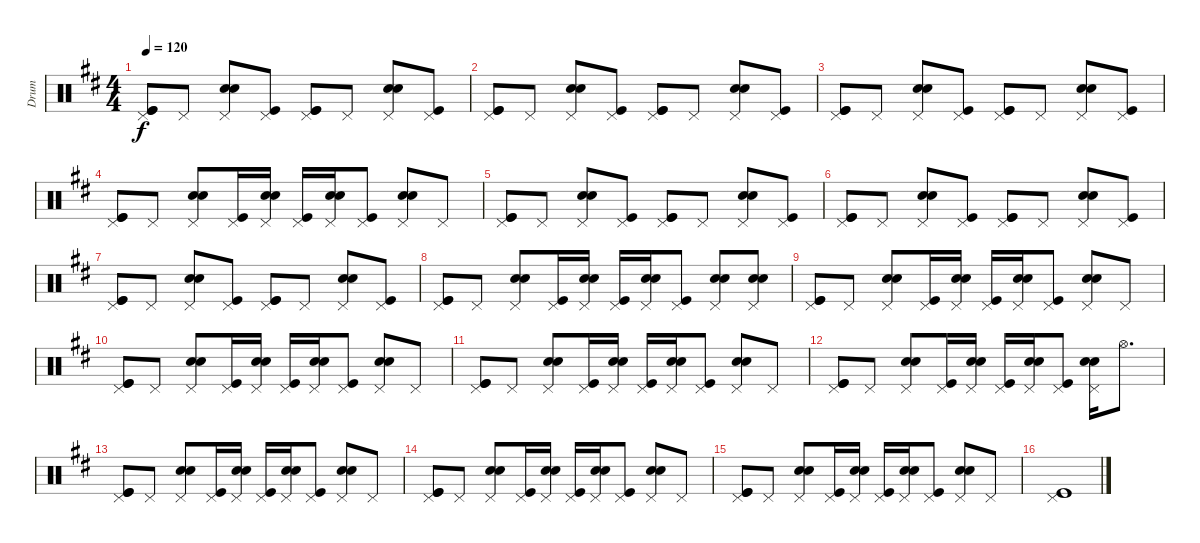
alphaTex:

\track ("Drum" "Drum") {instrument percussion}
\staff {score}
\articulation defaults
\ts (4 4)
\tempo 120
\clef neutral
\ks d
("Pedal Hi-Hat (hit)" "Kick (hit)" "Kick (hit)").8{dy f} "Pedal Hi-Hat (hit)".8 ("Pedal Hi-Hat (hit)" "Electric Snare (hit)" "Electric Snare (hit)").8 ("Pedal Hi-Hat (hit)" "Kick (hit)").8 ("Pedal Hi-Hat (hit)" "Kick (hit)" "Kick (hit)").8 "Pedal Hi-Hat (hit)".8 ("Pedal Hi-Hat (hit)" "Electric Snare (hit)" "Electric Snare (hit)").8 ("Pedal Hi-Hat (hit)" "Kick (hit)").8 |
("Pedal Hi-Hat (hit)" "Kick (hit)" "Kick (hit)").8 "Pedal Hi-Hat (hit)".8 ("Pedal Hi-Hat (hit)" "Electric Snare (hit)" "Electric Snare (hit)").8 ("Pedal Hi-Hat (hit)" "Kick (hit)").8 ("Pedal Hi-Hat (hit)" "Kick (hit)" "Kick (hit)").8 "Pedal Hi-Hat (hit)".8 ("Pedal Hi-Hat (hit)" "Electric Snare (hit)" "Electric Snare (hit)").8 ("Pedal Hi-Hat (hit)" "Kick (hit)").8 |
("Pedal Hi-Hat (hit)" "Kick (hit)" "Kick (hit)").8 "Pedal Hi-Hat (hit)".8 ("Pedal Hi-Hat (hit)" "Electric Snare (hit)" "Electric Snare (hit)").8 ("Pedal Hi-Hat (hit)" "Kick (hit)").8 ("Pedal Hi-Hat (hit)" "Kick (hit)" "Kick (hit)").8 "Pedal Hi-Hat (hit)".8 ("Pedal Hi-Hat (hit)" "Electric Snare (hit)" "Electric Snare (hit)").8 ("Pedal Hi-Hat (hit)" "Kick (hit)").8 |
("Pedal Hi-Hat (hit)" "Kick (hit)" "Kick (hit)").8 "Pedal Hi-Hat (hit)".8 ("Pedal Hi-Hat (hit)" "Electric Snare (hit)" "Electric Snare (hit)").8 ("Pedal Hi-Hat (hit)" "Kick (hit)").16 ("Pedal Hi-Hat (hit)" "Electric Snare (hit)" "Electric Snare (hit)").16 ("Pedal Hi-Hat (hit)" "Kick (hit)").16 ("Pedal Hi-Hat (hit)" "Electric Snare (hit)" "Electric Snare (hit)").16 ("Pedal Hi-Hat (hit)" "Kick (hit)").8 ("Pedal Hi-Hat (hit)" "Electric Snare (hit)" "Electric Snare (hit)").8 "Pedal Hi-Hat (hit)".8 |
("Pedal Hi-Hat (hit)" "Kick (hit)" "Kick (hit)").8 "Pedal Hi-Hat (hit)".8 ("Pedal Hi-Hat (hit)" "Electric Snare (hit)" "Electric Snare (hit)").8 ("Pedal Hi-Hat (hit)" "Kick (hit)").8 ("Pedal Hi-Hat (hit)" "Kick (hit)" "Kick (hit)").8 "Pedal Hi-Hat (hit)".8 ("Pedal Hi-Hat (hit)" "Electric Snare (hit)" "Electric Snare (hit)").8 ("Pedal Hi-Hat (hit)" "Kick (hit)").8 |
("Pedal Hi-Hat (hit)" "Kick (hit)" "Kick (hit)").8 "Pedal Hi-Hat (hit)".8 ("Pedal Hi-Hat (hit)" "Electric Snare (hit)" "Electric Snare (hit)").8 ("Pedal Hi-Hat (hit)" "Kick (hit)").8 ("Pedal Hi-Hat (hit)" "Kick (hit)" "Kick (hit)").8 "Pedal Hi-Hat (hit)".8 ("Pedal Hi-Hat (hit)" "Electric Snare (hit)" "Electric Snare (hit)").8 ("Pedal Hi-Hat (hit)" "Kick (hit)").8 |
("Pedal Hi-Hat (hit)" "Kick (hit)" "Kick (hit)").8 "Pedal Hi-Hat (hit)".8 ("Pedal Hi-Hat (hit)" "Electric Snare (hit)" "Electric Snare (hit)").8 ("Pedal Hi-Hat (hit)" "Kick (hit)").8 ("Pedal Hi-Hat (hit)" "Kick (hit)" "Kick (hit)").8 "Pedal Hi-Hat (hit)".8 ("Pedal Hi-Hat (hit)" "Electric Snare (hit)" "Electric Snare (hit)").8 ("Pedal Hi-Hat (hit)" "Kick (hit)").8 |
("Pedal Hi-Hat (hit)" "Kick (hit)" "Kick (hit)").8 "Pedal Hi-Hat (hit)".8 ("Pedal Hi-Hat (hit)" "Electric Snare (hit)" "Electric Snare (hit)").8 ("Pedal Hi-Hat (hit)" "Kick (hit)").16 ("Pedal Hi-Hat (hit)" "Electric Snare (hit)" "Electric Snare (hit)").16 ("Pedal Hi-Hat (hit)" "Kick (hit)").16 ("Pedal Hi-Hat (hit)" "Electric Snare (hit)" "Electric Snare (hit)").16 ("Pedal Hi-Hat (hit)" "Kick (hit)").8 ("Pedal Hi-Hat (hit)" "Electric Snare (hit)" "Electric Snare (hit)").8 ("Pedal Hi-Hat (hit)" "Electric Snare (hit)" "Electric Snare (hit)").8 |
("Pedal Hi-Hat (hit)" "Kick (hit)" "Kick (hit)").8 "Pedal Hi-Hat (hit)".8 ("Pedal Hi-Hat (hit)" "Electric Snare (hit)" "Electric Snare (hit)").8 ("Pedal Hi-Hat (hit)" "Kick (hit)").16 ("Pedal Hi-Hat (hit)" "Electric Snare (hit)" "Electric Snare (hit)").16 ("Pedal Hi-Hat (hit)" "Kick (hit)").16 ("Pedal Hi-Hat (hit)" "Electric Snare (hit)" "Electric Snare (hit)").16 ("Pedal Hi-Hat (hit)" "Kick (hit)").8 ("Pedal Hi-Hat (hit)" "Electric Snare (hit)" "Electric Snare (hit)").8 "Pedal Hi-Hat (hit)".8 |
("Pedal Hi-Hat (hit)" "Kick (hit)" "Kick (hit)").8 "Pedal Hi-Hat (hit)".8 ("Pedal Hi-Hat (hit)" "Electric Snare (hit)" "Electric Snare (hit)").8 ("Pedal Hi-Hat (hit)" "Kick (hit)").16 ("Pedal Hi-Hat (hit)" "Electric Snare (hit)" "Electric Snare (hit)").16 ("Pedal Hi-Hat (hit)" "Kick (hit)").16 ("Pedal Hi-Hat (hit)" "Electric Snare (hit)" "Electric Snare (hit)").16 ("Pedal Hi-Hat (hit)" "Kick (hit)").8 ("Pedal Hi-Hat (hit)" "Electric Snare (hit)" "Electric Snare (hit)").8 "Pedal Hi-Hat (hit)".8 |
("Pedal Hi-Hat (hit)" "Kick (hit)" "Kick (hit)").8 "Pedal Hi-Hat (hit)".8 ("Pedal Hi-Hat (hit)" "Electric Snare (hit)" "Electric Snare (hit)").8 ("Pedal Hi-Hat (hit)" "Kick (hit)").16 ("Pedal Hi-Hat (hit)" "Electric Snare (hit)" "Electric Snare (hit)").16 ("Pedal Hi-Hat (hit)" "Kick (hit)").16 ("Pedal Hi-Hat (hit)" "Electric Snare (hit)" "Electric Snare (hit)").16 ("Pedal Hi-Hat (hit)" "Kick (hit)").8 ("Pedal Hi-Hat (hit)" "Electric Snare (hit)" "Electric Snare (hit)").8 "Pedal Hi-Hat (hit)".8 |
("Pedal Hi-Hat (hit)" "Kick (hit)" "Kick (hit)").8 "Pedal Hi-Hat (hit)".8 ("Pedal Hi-Hat (hit)" "Electric Snare (hit)" "Electric Snare (hit)").8 ("Pedal Hi-Hat (hit)" "Kick (hit)").16 ("Pedal Hi-Hat (hit)" "Electric Snare (hit)" "Electric Snare (hit)").16 ("Pedal Hi-Hat (hit)" "Kick (hit)").16 ("Pedal Hi-Hat (hit)" "Electric Snare (hit)" "Electric Snare (hit)").16 ("Pedal Hi-Hat (hit)" "Kick (hit)").8 ("Pedal Hi-Hat (hit)" "Electric Snare (hit)" "Electric Snare (hit)").16 "Hi-Hat (open)".8{d} |
("Pedal Hi-Hat (hit)" "Kick (hit)" "Kick (hit)").8 "Pedal Hi-Hat (hit)".8 ("Pedal Hi-Hat (hit)" "Electric Snare (hit)" "Electric Snare (hit)").8 ("Pedal Hi-Hat (hit)" "Kick (hit)").16 ("Pedal Hi-Hat (hit)" "Electric Snare (hit)" "Electric Snare (hit)").16 ("Pedal Hi-Hat (hit)" "Kick (hit)").16 ("Pedal Hi-Hat (hit)" "Electric Snare (hit)" "Electric Snare (hit)").16 ("Pedal Hi-Hat (hit)" "Kick (hit)").8 ("Pedal Hi-Hat (hit)" "Electric Snare (hit)" "Electric Snare (hit)").8 "Pedal Hi-Hat (hit)".8 |
("Pedal Hi-Hat (hit)" "Kick (hit)" "Kick (hit)").8 "Pedal Hi-Hat (hit)".8 ("Pedal Hi-Hat (hit)" "Electric Snare (hit)" "Electric Snare (hit)").8 ("Pedal Hi-Hat (hit)" "Kick (hit)").16 ("Pedal Hi-Hat (hit)" "Electric Snare (hit)" "Electric Snare (hit)").16 ("Pedal Hi-Hat (hit)" "Kick (hit)").16 ("Pedal Hi-Hat (hit)" "Electric Snare (hit)" "Electric Snare (hit)").16 ("Pedal Hi-Hat (hit)" "Kick (hit)").8 ("Pedal Hi-Hat (hit)" "Electric Snare (hit)" "Electric Snare (hit)").8 "Pedal Hi-Hat (hit)".8 |
("Pedal Hi-Hat (hit)" "Kick (hit)" "Kick (hit)").8 "Pedal Hi-Hat (hit)".8 ("Pedal Hi-Hat (hit)" "Electric Snare (hit)" "Electric Snare (hit)").8 ("Pedal Hi-Hat (hit)" "Kick (hit)").16 ("Pedal Hi-Hat (hit)" "Electric Snare (hit)" "Electric Snare (hit)").16 ("Pedal Hi-Hat (hit)" "Kick (hit)").16 ("Pedal Hi-Hat (hit)" "Electric Snare (hit)" "Electric Snare (hit)").16 ("Pedal Hi-Hat (hit)" "Kick (hit)").8 ("Pedal Hi-Hat (hit)" "Electric Snare (hit)" "Electric Snare (hit)").8 "Pedal Hi-Hat (hit)".8 |
("Pedal Hi-Hat (hit)" "Kick (hit)" "Kick (hit)").1
